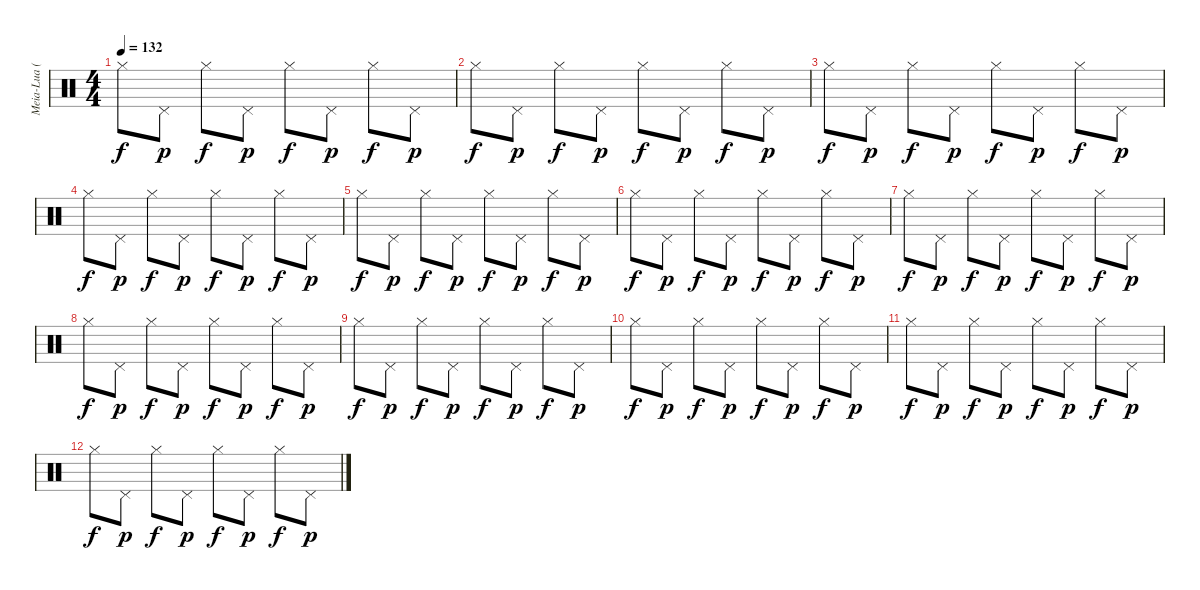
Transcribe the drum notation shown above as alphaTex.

\track ("Meia-Lua (hehe)" "Meia-Lua (") {instrument percussion}
\staff {score}
\articulation defaults
\ts (4 4)
\tempo 132
\clef neutral
\ks c "Hi-Hat (closed)".8{dy f} "Pedal Hi-Hat (hit)".8{dy p} "Hi-Hat (closed)".8{dy f} "Pedal Hi-Hat (hit)".8{dy p} "Hi-Hat (closed)".8{dy f} "Pedal Hi-Hat (hit)".8{dy p} "Hi-Hat (closed)".8{dy f} "Pedal Hi-Hat (hit)".8{dy p}
|
"Hi-Hat (closed)".8{dy f} "Pedal Hi-Hat (hit)".8{dy p} "Hi-Hat (closed)".8{dy f} "Pedal Hi-Hat (hit)".8{dy p} "Hi-Hat (closed)".8{dy f} "Pedal Hi-Hat (hit)".8{dy p} "Hi-Hat (closed)".8{dy f} "Pedal Hi-Hat (hit)".8{dy p} |
"Hi-Hat (closed)".8{dy f} "Pedal Hi-Hat (hit)".8{dy p} "Hi-Hat (closed)".8{dy f} "Pedal Hi-Hat (hit)".8{dy p} "Hi-Hat (closed)".8{dy f} "Pedal Hi-Hat (hit)".8{dy p} "Hi-Hat (closed)".8{dy f} "Pedal Hi-Hat (hit)".8{dy p} |
"Hi-Hat (closed)".8{dy f} "Pedal Hi-Hat (hit)".8{dy p} "Hi-Hat (closed)".8{dy f} "Pedal Hi-Hat (hit)".8{dy p} "Hi-Hat (closed)".8{dy f} "Pedal Hi-Hat (hit)".8{dy p} "Hi-Hat (closed)".8{dy f} "Pedal Hi-Hat (hit)".8{dy p} |
"Hi-Hat (closed)".8{dy f} "Pedal Hi-Hat (hit)".8{dy p} "Hi-Hat (closed)".8{dy f} "Pedal Hi-Hat (hit)".8{dy p} "Hi-Hat (closed)".8{dy f} "Pedal Hi-Hat (hit)".8{dy p} "Hi-Hat (closed)".8{dy f} "Pedal Hi-Hat (hit)".8{dy p} |
"Hi-Hat (closed)".8{dy f} "Pedal Hi-Hat (hit)".8{dy p} "Hi-Hat (closed)".8{dy f} "Pedal Hi-Hat (hit)".8{dy p} "Hi-Hat (closed)".8{dy f} "Pedal Hi-Hat (hit)".8{dy p} "Hi-Hat (closed)".8{dy f} "Pedal Hi-Hat (hit)".8{dy p} |
"Hi-Hat (closed)".8{dy f} "Pedal Hi-Hat (hit)".8{dy p} "Hi-Hat (closed)".8{dy f} "Pedal Hi-Hat (hit)".8{dy p} "Hi-Hat (closed)".8{dy f} "Pedal Hi-Hat (hit)".8{dy p} "Hi-Hat (closed)".8{dy f} "Pedal Hi-Hat (hit)".8{dy p} |
"Hi-Hat (closed)".8{dy f} "Pedal Hi-Hat (hit)".8{dy p} "Hi-Hat (closed)".8{dy f} "Pedal Hi-Hat (hit)".8{dy p} "Hi-Hat (closed)".8{dy f} "Pedal Hi-Hat (hit)".8{dy p} "Hi-Hat (closed)".8{dy f} "Pedal Hi-Hat (hit)".8{dy p} |
"Hi-Hat (closed)".8{dy f} "Pedal Hi-Hat (hit)".8{dy p} "Hi-Hat (closed)".8{dy f} "Pedal Hi-Hat (hit)".8{dy p} "Hi-Hat (closed)".8{dy f} "Pedal Hi-Hat (hit)".8{dy p} "Hi-Hat (closed)".8{dy f} "Pedal Hi-Hat (hit)".8{dy p} |
"Hi-Hat (closed)".8{dy f} "Pedal Hi-Hat (hit)".8{dy p} "Hi-Hat (closed)".8{dy f} "Pedal Hi-Hat (hit)".8{dy p} "Hi-Hat (closed)".8{dy f} "Pedal Hi-Hat (hit)".8{dy p} "Hi-Hat (closed)".8{dy f} "Pedal Hi-Hat (hit)".8{dy p} |
"Hi-Hat (closed)".8{dy f} "Pedal Hi-Hat (hit)".8{dy p} "Hi-Hat (closed)".8{dy f} "Pedal Hi-Hat (hit)".8{dy p} "Hi-Hat (closed)".8{dy f} "Pedal Hi-Hat (hit)".8{dy p} "Hi-Hat (closed)".8{dy f} "Pedal Hi-Hat (hit)".8{dy p} |
"Hi-Hat (closed)".8{dy f} "Pedal Hi-Hat (hit)".8{dy p} "Hi-Hat (closed)".8{dy f} "Pedal Hi-Hat (hit)".8{dy p} "Hi-Hat (closed)".8{dy f} "Pedal Hi-Hat (hit)".8{dy p} "Hi-Hat (closed)".8{dy f} "Pedal Hi-Hat (hit)".8{dy p}
